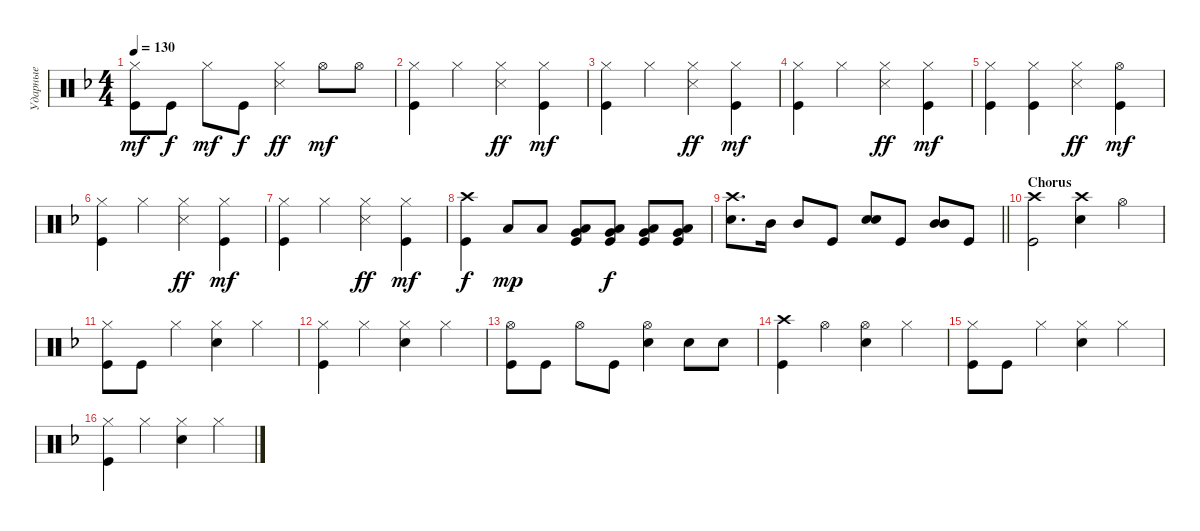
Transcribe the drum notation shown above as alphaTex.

\track ("Ударные" "Ударные") {instrument percussion}
\staff {score}
\articulation defaults
\ts (4 4)
\tempo 130
\clef neutral
\ks dminor
("Hi-Hat (closed)" "Kick (hit)").8{dy mf} "Kick (hit)".8{dy f} "Hi-Hat (closed)".8{dy mf} "Kick (hit)".8{dy f} ("Hi-Hat (closed)" "Snare (side stick) 3").4{dy ff} "Hi-Hat (open)".8{dy mf} "Hi-Hat (open)".8 |
("Hi-Hat (closed)" "Kick (hit)").4 "Hi-Hat (closed)".4 ("Hi-Hat (closed)" "Snare (side stick) 3").4{dy ff} ("Hi-Hat (closed)" "Kick (hit)").4{dy mf} |
("Hi-Hat (closed)" "Kick (hit)").4 "Hi-Hat (closed)".4 ("Hi-Hat (closed)" "Snare (side stick) 3").4{dy ff} ("Hi-Hat (closed)" "Kick (hit)").4{dy mf} |
("Hi-Hat (closed)" "Kick (hit)").4 "Hi-Hat (closed)".4 ("Hi-Hat (closed)" "Snare (side stick) 3").4{dy ff} ("Hi-Hat (closed)" "Kick (hit)").4{dy mf} |
("Hi-Hat (closed)" "Kick (hit)").4 ("Hi-Hat (closed)" "Kick (hit)").4 ("Hi-Hat (closed)" "Snare (side stick) 3").4{dy ff} ("Hi-Hat (open)" "Kick (hit)").4{dy mf} |
("Hi-Hat (closed)" "Kick (hit)").4 "Hi-Hat (closed)".4 ("Hi-Hat (closed)" "Snare (side stick) 3").4{dy ff} ("Hi-Hat (closed)" "Kick (hit)").4{dy mf} |
("Hi-Hat (closed)" "Kick (hit)").4 "Hi-Hat (closed)".4 ("Hi-Hat (closed)" "Snare (side stick) 3").4{dy ff} ("Hi-Hat (closed)" "Kick (hit)").4{dy mf} |
("Kick (hit)" "Crash high (hit)").4{dy f} "Low Tom (hit)".8{dy mp} "Low Tom (hit)".8 ("Low Tom (hit)" "Kick (hit)" "Very Low Tom (hit)").8{bd 60} ("Low Tom (hit)" "Kick (hit)" "Very Low Tom (hit)").8{bd 60 dy f} ("Very Low Tom (hit)" "Kick (hit)" "Low Tom (hit)").8{bd 60} ("Very Low Tom (hit)" "Kick (hit)" "Low Tom (hit)").8{bd 60} |
\barLineRight lightlight
("Snare (hit) 2" "Crash high (hit)").8{d} "Mid Tom (hit)".16 "Mid Tom (hit)".8 "Kick (hit)".8 ("Snare (hit) 2" "Snare (hit) 2").8{bd 240} "Kick (hit)".8 ("Mid Tom (hit)" "Mid Tom (hit)").8{bd 240} "Kick (hit)".8 |
\section ("" "Chorus")
("Kick (hit)" "Crash high (hit)").2 ("Snare (hit) 2" "Crash high (hit)").4 "Hi-Hat (open)".4 |
("Hi-Hat (closed)" "Kick (hit)").8 "Kick (hit)".8 "Hi-Hat (closed)".4 ("Hi-Hat (closed)" "Snare (hit) 2").4 "Hi-Hat (closed)".4 |
("Hi-Hat (closed)" "Kick (hit)").4 "Hi-Hat (closed)".4 ("Hi-Hat (closed)" "Snare (hit) 2").4 "Hi-Hat (closed)".4 |
("Kick (hit)" "Hi-Hat (open)").8 "Kick (hit)".8 "Hi-Hat (open)".8 "Kick (hit)".8 ("Snare (hit) 2" "Hi-Hat (open)").4 "Snare (hit) 2".8 "Snare (hit) 2".8 |
("Kick (hit)" "Crash high (hit)").4 "Hi-Hat (open)".4 ("Snare (hit) 2" "Hi-Hat (open)").4 "Hi-Hat (closed)".4 |
("Hi-Hat (closed)" "Kick (hit)").8 "Kick (hit)".8 "Hi-Hat (closed)".4 ("Hi-Hat (closed)" "Snare (hit) 2").4 "Hi-Hat (closed)".4 |
("Hi-Hat (closed)" "Kick (hit)").4 "Hi-Hat (closed)".4 ("Hi-Hat (closed)" "Snare (hit) 2").4 "Hi-Hat (closed)".4
